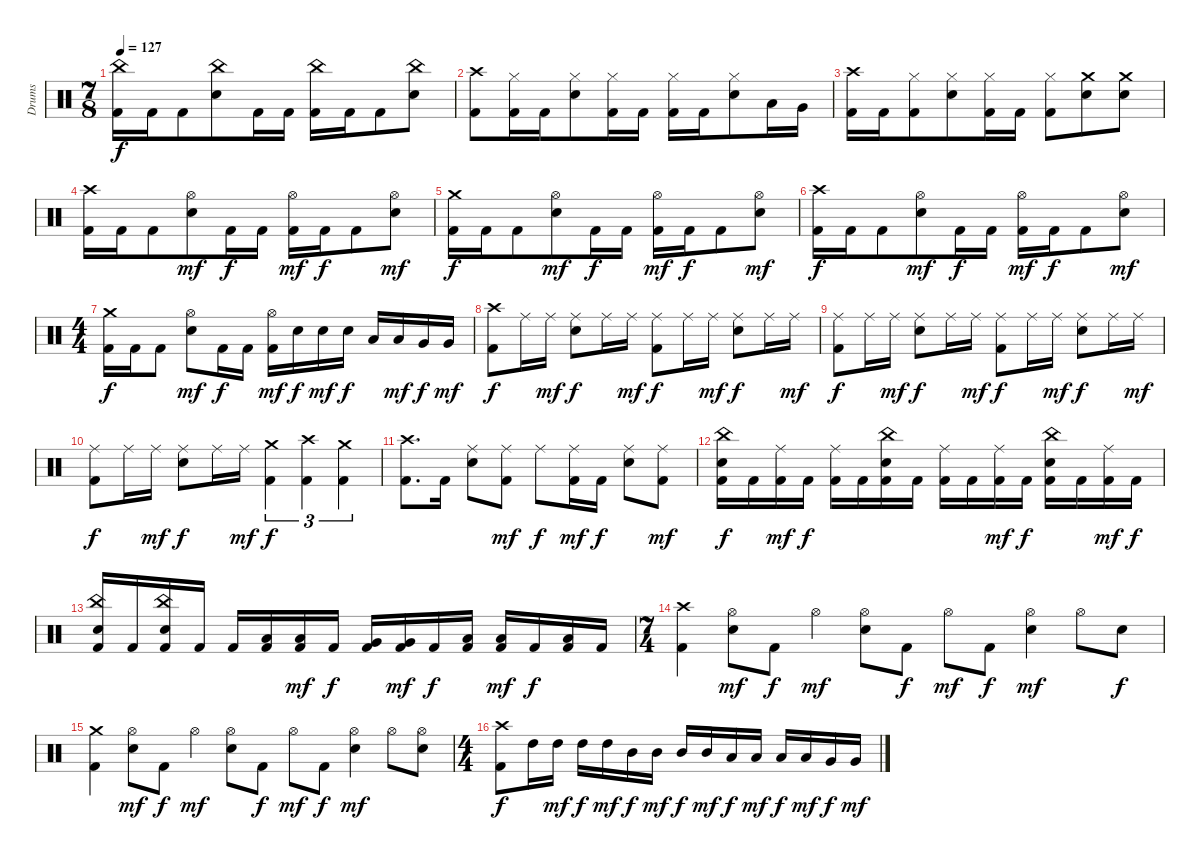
\track ("Drums" "Drums") {instrument percussion}
\staff {score}
\articulation defaults
\ts (7 8)
\tempo 127
\clef neutral
\ks c
("Kick (hit) 2" "China (hit)").16{dy f} "Kick (hit) 2".16 "Kick (hit) 2".8 ("China (hit)" "Electric Snare (hit)").8 "Kick (hit) 2".16 "Kick (hit) 2".16 ("Kick (hit) 2" "China (hit)").16 "Kick (hit) 2".16 "Kick (hit) 2".8 ("China (hit)" "Electric Snare (hit)").8 |
("Kick (hit) 2" "Crash high (hit)").8 ("Kick (hit) 2" "Hi-Hat (closed)").16 "Kick (hit) 2".16 ("Hi-Hat (closed)" "Electric Snare (hit)").8 ("Kick (hit) 2" "Hi-Hat (closed)").16 "Kick (hit) 2".16 ("Kick (hit) 2" "Hi-Hat (closed)").16 "Kick (hit) 2".16 ("Hi-Hat (closed)" "Electric Snare (hit)").8 "Low Tom (hit)".16 "Very Low Tom (hit)".16 |
("Kick (hit) 2" "Crash high (hit)").16 "Kick (hit) 2".16 ("Kick (hit) 2" "Hi-Hat (closed)").8 ("Hi-Hat (closed)" "Electric Snare (hit)").8 ("Kick (hit) 2" "Hi-Hat (closed)").16 "Kick (hit) 2".16 ("Kick (hit) 2" "Hi-Hat (closed)").8 ("Crash medium (hit)" "Electric Snare (hit)").8 ("Crash medium (hit)" "Electric Snare (hit)").8 |
("Kick (hit) 2" "Crash high (hit)").16 "Kick (hit) 2".16 "Kick (hit) 2".8 ("Hi-Hat (open)" "Electric Snare (hit)").8{dy mf} "Kick (hit) 2".16{dy f} "Kick (hit) 2".16 ("Kick (hit) 2" "Hi-Hat (open)").16{dy mf} "Kick (hit) 2".16{dy f} "Kick (hit) 2".8 ("Hi-Hat (open)" "Electric Snare (hit)").8{dy mf} |
("Kick (hit) 2" "Crash medium (hit)").16{dy f} "Kick (hit) 2".16 "Kick (hit) 2".8 ("Hi-Hat (open)" "Electric Snare (hit)").8{dy mf} "Kick (hit) 2".16{dy f} "Kick (hit) 2".16 ("Kick (hit) 2" "Hi-Hat (open)").16{dy mf} "Kick (hit) 2".16{dy f} "Kick (hit) 2".8 ("Hi-Hat (open)" "Electric Snare (hit)").8{dy mf} |
("Kick (hit) 2" "Crash high (hit)").16{dy f} "Kick (hit) 2".16 "Kick (hit) 2".8 ("Hi-Hat (open)" "Electric Snare (hit)").8{dy mf} "Kick (hit) 2".16{dy f} "Kick (hit) 2".16 ("Kick (hit) 2" "Hi-Hat (open)").16{dy mf} "Kick (hit) 2".16{dy f} "Kick (hit) 2".8 ("Hi-Hat (open)" "Electric Snare (hit)").8{dy mf} |
\ts (4 4)
("Kick (hit) 2" "Crash medium (hit)").16{dy f} "Kick (hit) 2".16 "Kick (hit) 2".8 ("Hi-Hat (open)" "Electric Snare (hit)").8{dy mf} "Kick (hit) 2".16{dy f} "Kick (hit) 2".16 ("Kick (hit) 2" "Hi-Hat (open)").16{dy mf} "Electric Snare (hit)".16{dy f} "Electric Snare (hit)".16{dy mf} "Electric Snare (hit)".16{dy f} "Low Tom (hit)".16 "Low Tom (hit)".16{dy mf} "Very Low Tom (hit)".16{dy f} "Very Low Tom (hit)".16{dy mf} |
("Kick (hit) 2" "Crash high (hit)").8{dy f} "Ride (middle)".16 "Ride (middle)".16{dy mf} ("Ride (middle)" "Electric Snare (hit)").8{dy f} "Ride (middle)".16 "Ride (middle)".16{dy mf} ("Kick (hit) 2" "Ride (middle)").8{dy f} "Ride (middle)".16 "Ride (middle)".16{dy mf} ("Ride (middle)" "Electric Snare (hit)").8{dy f} "Ride (middle)".16 "Ride (middle)".16{dy mf} |
("Kick (hit) 2" "Ride (middle)").8{dy f} "Ride (middle)".16 "Ride (middle)".16{dy mf} ("Ride (middle)" "Electric Snare (hit)").8{dy f} "Ride (middle)".16 "Ride (middle)".16{dy mf} ("Kick (hit) 2" "Ride (middle)").8{dy f} "Ride (middle)".16 "Ride (middle)".16{dy mf} ("Ride (middle)" "Electric Snare (hit)").8{dy f} "Ride (middle)".16 "Ride (middle)".16{dy mf} |
("Kick (hit) 2" "Ride (middle)").8{dy f} "Ride (middle)".16 "Ride (middle)".16{dy mf} ("Ride (middle)" "Electric Snare (hit)").8{dy f} "Ride (middle)".16 "Ride (middle)".16{dy mf} ("Kick (hit) 2" "Crash medium (hit)").4{tu (3 2) dy f} ("Kick (hit) 2" "Crash high (hit)").4{tu (3 2)} ("Kick (hit) 2" "Crash medium (hit)").4{tu (3 2)} |
("Kick (hit) 2" "Crash high (hit)").8{d} "Kick (hit) 2".16 ("Ride (middle)" "Electric Snare (hit)").8 ("Kick (hit) 2" "Ride (middle)").8{dy mf} "Ride (middle)".8{dy f} ("Kick (hit) 2" "Ride (middle)").16{dy mf} "Kick (hit) 2".16{dy f} ("Ride (middle)" "Electric Snare (hit)").8 ("Kick (hit) 2" "Ride (middle)").8{dy mf} |
("Kick (hit) 2" "China (hit)" "Electric Snare (hit)").16{dy f} "Kick (hit) 2".16 ("Kick (hit) 2" "Ride (middle)").16{dy mf} "Kick (hit) 2".16{dy f} ("Kick (hit) 2" "Ride (middle)").16 "Kick (hit) 2".16 ("Kick (hit) 2" "China (hit)" "Electric Snare (hit)").16 "Kick (hit) 2".16 ("Kick (hit) 2" "Ride (middle)").16 "Kick (hit) 2".16 ("Kick (hit) 2" "Ride (middle)").16{dy mf} "Kick (hit) 2".16{dy f} ("Kick (hit) 2" "China (hit)" "Electric Snare (hit)").16 "Kick (hit) 2".16 ("Kick (hit) 2" "Ride (middle)").16{dy mf} "Kick (hit) 2".16{dy f} |
("Kick (hit) 2" "China (hit)" "Electric Snare (hit)").16 "Kick (hit) 2".16 ("Kick (hit) 2" "China (hit)" "Electric Snare (hit)").16 "Kick (hit) 2".16 "Kick (hit) 2".16 ("Kick (hit) 2" "Low Tom (hit)").16 ("Kick (hit) 2" "Low Tom (hit)").16{dy mf} "Kick (hit) 2".16{dy f} ("Kick (hit) 2" "Very Low Tom (hit)").16 ("Kick (hit) 2" "Very Low Tom (hit)").16{dy mf} "Kick (hit) 2".16{dy f} ("Kick (hit) 2" "Low Floor Tom (hit)").16 ("Kick (hit) 2" "Low Floor Tom (hit)").16{dy mf} "Kick (hit) 2".16{dy f} ("Kick (hit) 2" "Low Floor Tom (hit)").16 "Kick (hit) 2".16 |
\ts (7 4)
("Kick (hit) 2" "Crash high (hit)").4 ("Hi-Hat (open)" "Electric Snare (hit)").8{dy mf} "Kick (hit) 2".8{dy f} "Hi-Hat (open)".4{dy mf} ("Hi-Hat (open)" "Electric Snare (hit)").8 "Kick (hit) 2".8{dy f} "Hi-Hat (open)".8{dy mf} "Kick (hit) 2".8{dy f} ("Hi-Hat (open)" "Electric Snare (hit)").4{dy mf} "Hi-Hat (open)".8 "Electric Snare (hit)".8{dy f} |
("Kick (hit) 2" "Crash medium (hit)").4 ("Hi-Hat (open)" "Electric Snare (hit)").8{dy mf} "Kick (hit) 2".8{dy f} "Hi-Hat (open)".4{dy mf} ("Hi-Hat (open)" "Electric Snare (hit)").8 "Kick (hit) 2".8{dy f} "Hi-Hat (open)".8{dy mf} "Kick (hit) 2".8{dy f} ("Hi-Hat (open)" "Electric Snare (hit)").4{dy mf} "Hi-Hat (open)".8 ("Hi-Hat (open)" "Electric Snare (hit)").8 |
\ts (4 4)
("Kick (hit) 2" "Crash high (hit)").8{dy f} "High Tom (hit)".16 "High Tom (hit)".16{dy mf} "High Tom (hit)".16{dy f} "High Tom (hit)".16{dy mf} "Mid Tom (hit)".16{dy f} "Mid Tom (hit)".16{dy mf} "Mid Tom (hit)".16{dy f} "Mid Tom (hit)".16{dy mf} "Low Tom (hit)".16{dy f} "Low Tom (hit)".16{dy mf} "Low Tom (hit)".16{dy f} "Low Tom (hit)".16{dy mf} "Very Low Tom (hit)".16{dy f} "Very Low Tom (hit)".16{dy mf}
